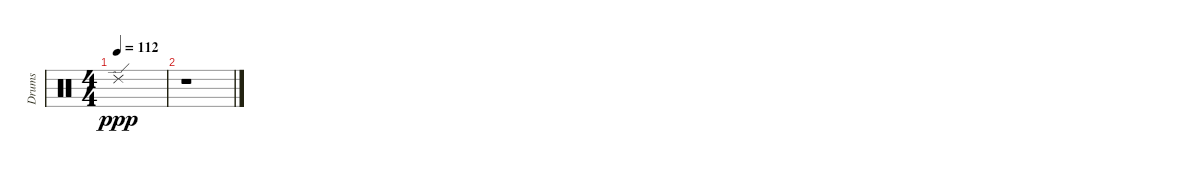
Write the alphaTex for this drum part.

\track ("Drums" "Drums") {instrument percussion}
\staff {score}
\articulation defaults
\ts (4 4)
\tempo 112
\clef neutral
\ks c "Ride (edge) 2".1{dy ppp}
|
r.1
